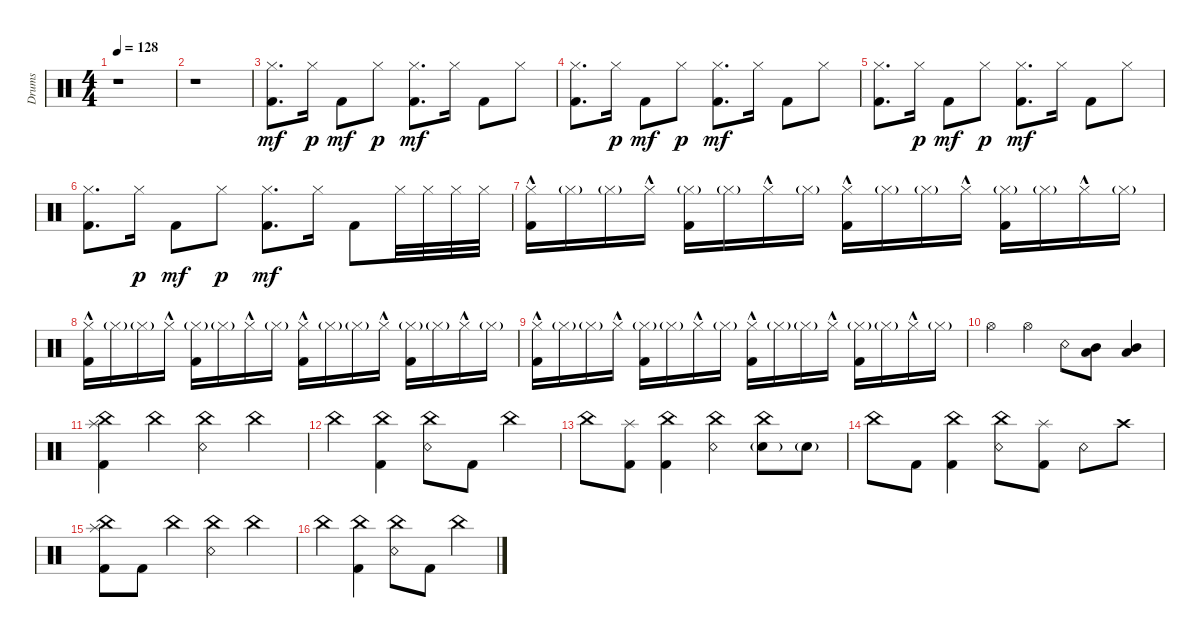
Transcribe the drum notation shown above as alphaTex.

\track ("Drums" "Drums") {instrument percussion}
\staff {score}
\articulation defaults
\ts (4 4)
\tempo 128
\clef neutral
\ks c
r.1{dy mf} |
r.1 |
("Hi-Hat (closed)" "Kick (hit) 2").8{d} "Hi-Hat (closed)".16{dy p} "Kick (hit) 2".8{dy mf} "Hi-Hat (closed)".8{dy p} ("Hi-Hat (closed)" "Kick (hit) 2").8{d dy mf} "Hi-Hat (closed)".16 "Kick (hit) 2".8 "Hi-Hat (closed)".8 |
("Hi-Hat (closed)" "Kick (hit) 2").8{d} "Hi-Hat (closed)".16{dy p} "Kick (hit) 2".8{dy mf} "Hi-Hat (closed)".8{dy p} ("Hi-Hat (closed)" "Kick (hit) 2").8{d dy mf} "Hi-Hat (closed)".16 "Kick (hit) 2".8 "Hi-Hat (closed)".8 |
("Hi-Hat (closed)" "Kick (hit) 2").8{d} "Hi-Hat (closed)".16{dy p} "Kick (hit) 2".8{dy mf} "Hi-Hat (closed)".8{dy p} ("Hi-Hat (closed)" "Kick (hit) 2").8{d dy mf} "Hi-Hat (closed)".16 "Kick (hit) 2".8 "Hi-Hat (closed)".8 |
("Hi-Hat (closed)" "Kick (hit) 2").8{d} "Hi-Hat (closed)".16{dy p} "Kick (hit) 2".8{dy mf} "Hi-Hat (closed)".8{dy p} ("Hi-Hat (closed)" "Kick (hit) 2").8{d dy mf} "Hi-Hat (closed)".16 "Kick (hit) 2".8 "Hi-Hat (closed)".32 "Hi-Hat (closed)".32 "Hi-Hat (closed)".32 "Hi-Hat (closed)".32 |
("Hi-Hat (closed)"{hac} "Kick (hit) 2").16 "Hi-Hat (closed)"{g}.16 "Hi-Hat (closed)"{g}.16 "Hi-Hat (closed)"{hac}.16 ("Hi-Hat (closed)"{g} "Kick (hit) 2").16 "Hi-Hat (closed)"{g}.16 "Hi-Hat (closed)"{hac}.16 "Hi-Hat (closed)"{g}.16 ("Hi-Hat (closed)"{hac} "Kick (hit) 2").16 "Hi-Hat (closed)"{g}.16 "Hi-Hat (closed)"{g}.16 "Hi-Hat (closed)"{hac}.16 ("Hi-Hat (closed)"{g} "Kick (hit) 2").16 "Hi-Hat (closed)"{g}.16 "Hi-Hat (closed)"{hac}.16 "Hi-Hat (closed)"{g}.16 |
("Hi-Hat (closed)"{hac} "Kick (hit) 2").16 "Hi-Hat (closed)"{g}.16 "Hi-Hat (closed)"{g}.16 "Hi-Hat (closed)"{hac}.16 ("Hi-Hat (closed)"{g} "Kick (hit) 2").16 "Hi-Hat (closed)"{g}.16 "Hi-Hat (closed)"{hac}.16 "Hi-Hat (closed)"{g}.16 ("Hi-Hat (closed)"{hac} "Kick (hit) 2").16 "Hi-Hat (closed)"{g}.16 "Hi-Hat (closed)"{g}.16 "Hi-Hat (closed)"{hac}.16 ("Hi-Hat (closed)"{g} "Kick (hit) 2").16 "Hi-Hat (closed)"{g}.16 "Hi-Hat (closed)"{hac}.16 "Hi-Hat (closed)"{g}.16 |
("Hi-Hat (closed)"{hac} "Kick (hit) 2").16 "Hi-Hat (closed)"{g}.16 "Hi-Hat (closed)"{g}.16 "Hi-Hat (closed)"{hac}.16 ("Hi-Hat (closed)"{g} "Kick (hit) 2").16 "Hi-Hat (closed)"{g}.16 "Hi-Hat (closed)"{hac}.16 "Hi-Hat (closed)"{g}.16 ("Hi-Hat (closed)"{hac} "Kick (hit) 2").16 "Hi-Hat (closed)"{g}.16 "Hi-Hat (closed)"{g}.16 "Hi-Hat (closed)"{hac}.16 ("Hi-Hat (closed)"{g} "Kick (hit) 2").16 "Hi-Hat (closed)"{g}.16 "Hi-Hat (closed)"{hac}.16 "Hi-Hat (closed)"{g}.16 |
"Hi-Hat (open)".4 "Hi-Hat (open)".4 "Snare (rim shot)".8 ("Mid Tom (hit)" "Low Tom (hit)").8 ("Mid Tom (hit)" "Low Tom (hit)").4 |
("China (hit)" "Splash (hit)" "Kick (hit) 2").4 "China (hit)".4 ("China (hit)" "Snare (rim shot)").4 "China (hit)".4 |
"China (hit)".4 ("China (hit)" "Kick (hit) 2").4 ("China (hit)" "Snare (rim shot)").8 "Kick (hit) 2".8 "China (hit)".4 |
"China (hit)".8 ("Splash (hit)" "Kick (hit) 2").8 ("China (hit)" "Kick (hit) 2").4 ("China (hit)" "Snare (rim shot)").4 ("China (hit)" "Snare (hit) 2"{g}).8 "Snare (hit) 2"{g}.8 |
"China (hit)".8 "Kick (hit) 2".8 ("China (hit)" "Kick (hit) 2").4 ("China (hit)" "Snare (rim shot)").8 ("Splash (hit)" "Kick (hit) 2").8 "Snare (rim shot)".8 "Crash high (hit)".8 |
("China (hit)" "Splash (hit)" "Kick (hit) 2").8 "Kick (hit) 2".8 "China (hit)".4 ("China (hit)" "Snare (rim shot)").4 "China (hit)".4 |
"China (hit)".4 ("China (hit)" "Kick (hit) 2").4 ("China (hit)" "Snare (rim shot)").8 "Kick (hit) 2".8 "China (hit)".4
